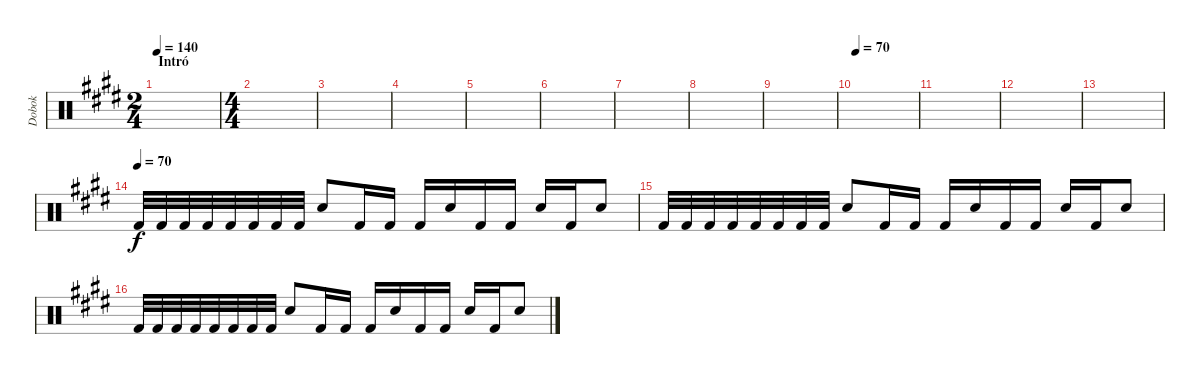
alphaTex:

\track ("Dobok" "Dobok") {instrument percussion}
\staff {score}
\articulation defaults
\ts (2 4)
\section ("" "Intró")
\tempo 140
\tempo 70
\tempo 140
\clef neutral
\ks c#minor
|
\ts (4 4)
|
|
|
|
|
|
|
|
\tempo 70
|
|
|
|
\tempo (70)
"Kick (hit) 2".32{volume 9} "Kick (hit) 2".32 "Kick (hit) 2".32 "Kick (hit) 2".32 "Kick (hit) 2".32 "Kick (hit) 2".32 "Kick (hit) 2".32 "Kick (hit) 2".32 "Snare (hit) 2".8 "Kick (hit) 2".16 "Kick (hit) 2".16 "Kick (hit) 2".16 "Snare (hit) 2".16 "Kick (hit) 2".16 "Kick (hit) 2".16 "Snare (hit) 2".16 "Kick (hit) 2".16 "Snare (hit) 2".8 |
"Kick (hit) 2".32 "Kick (hit) 2".32 "Kick (hit) 2".32 "Kick (hit) 2".32 "Kick (hit) 2".32 "Kick (hit) 2".32 "Kick (hit) 2".32 "Kick (hit) 2".32 "Snare (hit) 2".8 "Kick (hit) 2".16 "Kick (hit) 2".16 "Kick (hit) 2".16 "Snare (hit) 2".16 "Kick (hit) 2".16 "Kick (hit) 2".16 "Snare (hit) 2".16 "Kick (hit) 2".16 "Snare (hit) 2".8 |
"Kick (hit) 2".32 "Kick (hit) 2".32 "Kick (hit) 2".32 "Kick (hit) 2".32 "Kick (hit) 2".32 "Kick (hit) 2".32 "Kick (hit) 2".32 "Kick (hit) 2".32 "Snare (hit) 2".8 "Kick (hit) 2".16 "Kick (hit) 2".16 "Kick (hit) 2".16 "Snare (hit) 2".16 "Kick (hit) 2".16 "Kick (hit) 2".16 "Snare (hit) 2".16 "Kick (hit) 2".16 "Snare (hit) 2".8
